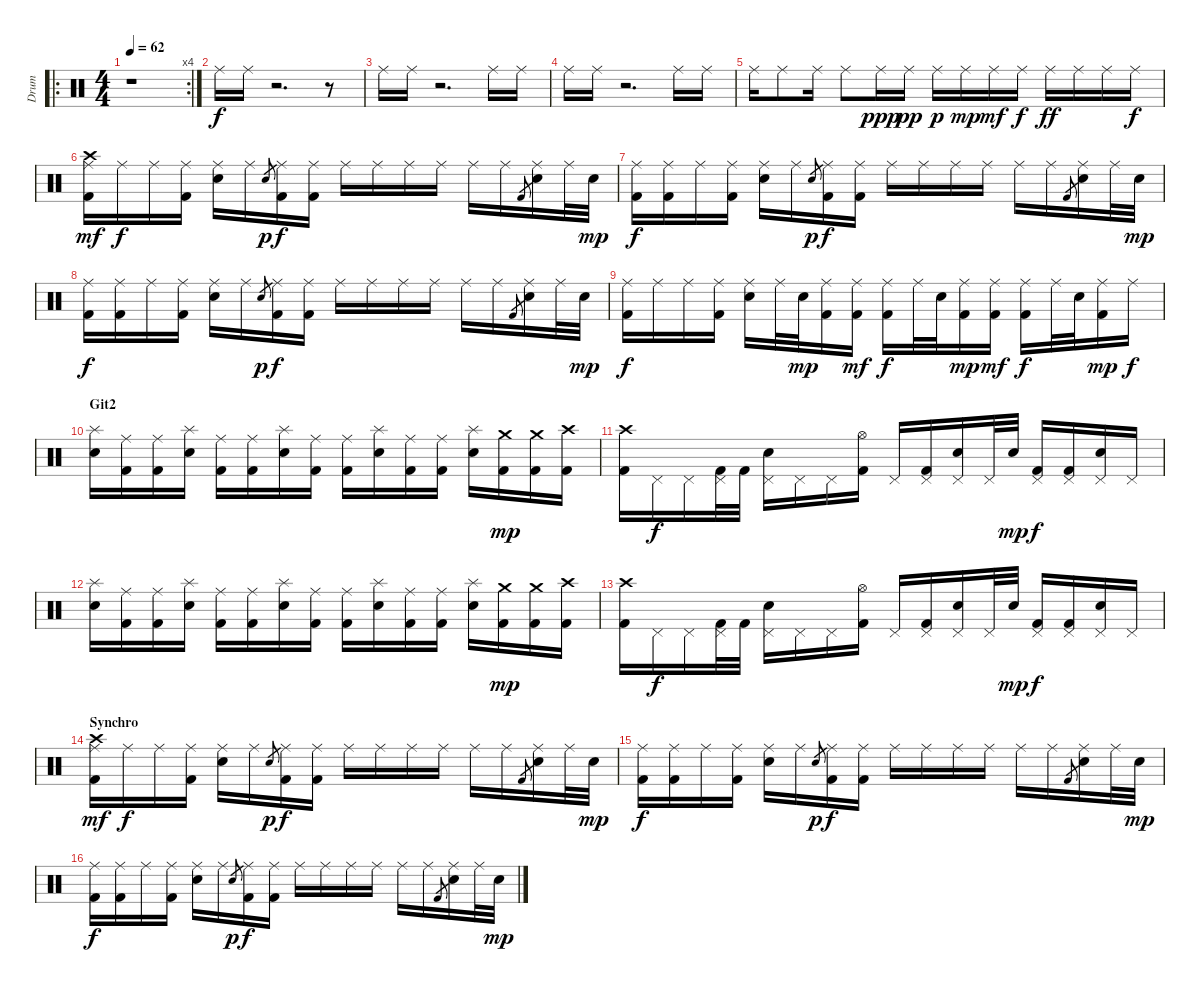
\track ("Drum" "Drum") {instrument percussion}
\staff {score}
\articulation defaults
\ro
\rc 4
\ts (4 4)
\tempo 62
\clef neutral
\ks c
r.1{dy f} |
"Ride (middle)".16 "Ride (middle)".16 r.2{d} r.8 |
"Ride (middle)".16 "Ride (middle)".16 r.2{d} "Ride (middle)".16 "Ride (middle)".16 |
"Ride (middle)".16 "Ride (middle)".16 r.2{d} "Ride (middle)".16 "Ride (middle)".16 |
"Ride (middle)".16 "Ride (middle)".8 "Ride (middle)".16 "Ride (middle)".8 "Ride (middle)".16{dy ppp} "Ride (middle)".16{dy pp} "Ride (middle)".16{dy p} "Ride (middle)".16{dy mp} "Ride (middle)".16{dy mf} "Ride (middle)".16{dy f} "Ride (middle)".16{dy ff} "Ride (middle)".16 "Ride (middle)".16 "Ride (middle)".16{dy f} |
("Crash high (hit)" "Ride (middle)" "Kick (hit) 2").16{dy mf} "Ride (middle)".16{dy f} "Ride (middle)".16 ("Ride (middle)" "Kick (hit) 2").16 ("Ride (middle)" "Electric Snare (hit)").16 "Ride (middle)".16 "Snare (hit) 2".8{gr dy p} ("Ride (middle)" "Kick (hit) 2").16{dy f} ("Ride (middle)" "Kick (hit) 2").16 "Ride (middle)".16 "Ride (middle)".16 "Ride (middle)".16 "Ride (middle)".16 "Ride (middle)".16 "Ride (middle)".16 "Kick (hit) 2".8{gr} ("Ride (middle)" "Electric Snare (hit)").16 "Ride (middle)".32 "Snare (hit) 2".32{dy mp} |
("Ride (middle)" "Kick (hit) 2").16{dy f} ("Ride (middle)" "Kick (hit) 2").16 "Ride (middle)".16 ("Ride (middle)" "Kick (hit) 2").16 ("Ride (middle)" "Electric Snare (hit)").16 "Ride (middle)".16 "Snare (hit) 2".8{gr dy p} ("Ride (middle)" "Kick (hit) 2").16{dy f} ("Ride (middle)" "Kick (hit) 2").16 "Ride (middle)".16 "Ride (middle)".16 "Ride (middle)".16 "Ride (middle)".16 "Ride (middle)".16 "Ride (middle)".16 "Kick (hit) 2".8{gr} ("Ride (middle)" "Electric Snare (hit)").16 "Ride (middle)".32 "Snare (hit) 2".32{dy mp} |
("Ride (middle)" "Kick (hit) 2").16{dy f} ("Ride (middle)" "Kick (hit) 2").16 "Ride (middle)".16 ("Ride (middle)" "Kick (hit) 2").16 ("Ride (middle)" "Electric Snare (hit)").16 "Ride (middle)".16 "Snare (hit) 2".8{gr dy p} ("Ride (middle)" "Kick (hit) 2").16{dy f} ("Ride (middle)" "Kick (hit) 2").16 "Ride (middle)".16 "Ride (middle)".16 "Ride (middle)".16 "Ride (middle)".16 "Ride (middle)".16 "Ride (middle)".16 "Kick (hit) 2".8{gr} ("Ride (middle)" "Electric Snare (hit)").16 "Ride (middle)".32 "Snare (hit) 2".32{dy mp} |
("Ride (middle)" "Kick (hit) 2").16{dy f} "Ride (middle)".16 "Ride (middle)".16 ("Ride (middle)" "Kick (hit) 2").16 ("Ride (middle)" "Electric Snare (hit)").16 "Ride (middle)".32 "Snare (hit) 2".32{dy mp} ("Ride (middle)" "Kick (hit) 2").16 ("Ride (middle)" "Kick (hit) 2").16{dy mf} ("Ride (middle)" "Kick (hit) 2").16{dy f} "Ride (middle)".32 "Electric Snare (hit)".32 ("Ride (middle)" "Kick (hit) 2").16{dy mp} ("Ride (middle)" "Kick (hit) 2").16{dy mf} ("Ride (middle)" "Kick (hit) 2").16{dy f} "Ride (middle)".32 "Electric Snare (hit)".32 ("Ride (middle)" "Kick (hit) 2").16{dy mp} "Ride (middle)".16{dy f} |
\section ("" "Git2")
("Splash (hit)" "Electric Snare (hit)").16 ("Ride (middle)" "Kick (hit) 2").16 ("Ride (middle)" "Kick (hit) 2").16 ("Splash (hit)" "Electric Snare (hit)").16 ("Ride (middle)" "Kick (hit) 2").16 ("Ride (middle)" "Kick (hit) 2").16 ("Splash (hit)" "Electric Snare (hit)").16 ("Ride (middle)" "Kick (hit) 2").16 ("Ride (middle)" "Kick (hit) 2").16 ("Splash (hit)" "Electric Snare (hit)").16 ("Ride (middle)" "Kick (hit) 2").16 ("Ride (middle)" "Kick (hit) 2").16 ("Splash (hit)" "Electric Snare (hit)").16 ("Crash medium (hit)" "Kick (hit) 2").16{dy mp} ("Crash medium (hit)" "Kick (hit) 2").16 ("Crash high (hit)" "Kick (hit) 2").16 |
("Crash high (hit)" "Kick (hit) 2").16 "Pedal Hi-Hat (hit)".16{dy f} "Pedal Hi-Hat (hit)".16 ("Pedal Hi-Hat (hit)" "Kick (hit) 2").32 "Kick (hit) 2".32 ("Pedal Hi-Hat (hit)" "Electric Snare (hit)").16 "Pedal Hi-Hat (hit)".16 "Pedal Hi-Hat (hit)".16 ("Hi-Hat (open)" "Kick (hit) 2").16 "Pedal Hi-Hat (hit)".16 ("Pedal Hi-Hat (hit)" "Kick (hit) 2").16 ("Pedal Hi-Hat (hit)" "Electric Snare (hit)").16 "Pedal Hi-Hat (hit)".32 "Electric Snare (hit)".32{dy mp} ("Pedal Hi-Hat (hit)" "Kick (hit) 2").16{dy f} ("Pedal Hi-Hat (hit)" "Kick (hit) 2").16 ("Pedal Hi-Hat (hit)" "Electric Snare (hit)").16 "Pedal Hi-Hat (hit)".16 |
("Splash (hit)" "Electric Snare (hit)").16 ("Ride (middle)" "Kick (hit) 2").16 ("Ride (middle)" "Kick (hit) 2").16 ("Splash (hit)" "Electric Snare (hit)").16 ("Ride (middle)" "Kick (hit) 2").16 ("Ride (middle)" "Kick (hit) 2").16 ("Splash (hit)" "Electric Snare (hit)").16 ("Ride (middle)" "Kick (hit) 2").16 ("Ride (middle)" "Kick (hit) 2").16 ("Splash (hit)" "Electric Snare (hit)").16 ("Ride (middle)" "Kick (hit) 2").16 ("Ride (middle)" "Kick (hit) 2").16 ("Splash (hit)" "Electric Snare (hit)").16 ("Crash medium (hit)" "Kick (hit) 2").16{dy mp} ("Crash medium (hit)" "Kick (hit) 2").16 ("Crash high (hit)" "Kick (hit) 2").16 |
("Crash high (hit)" "Kick (hit) 2").16 "Pedal Hi-Hat (hit)".16{dy f} "Pedal Hi-Hat (hit)".16 ("Pedal Hi-Hat (hit)" "Kick (hit) 2").32 "Kick (hit) 2".32 ("Pedal Hi-Hat (hit)" "Electric Snare (hit)").16 "Pedal Hi-Hat (hit)".16 "Pedal Hi-Hat (hit)".16 ("Hi-Hat (open)" "Kick (hit) 2").16 "Pedal Hi-Hat (hit)".16 ("Pedal Hi-Hat (hit)" "Kick (hit) 2").16 ("Pedal Hi-Hat (hit)" "Electric Snare (hit)").16 "Pedal Hi-Hat (hit)".32 "Electric Snare (hit)".32{dy mp} ("Pedal Hi-Hat (hit)" "Kick (hit) 2").16{dy f} ("Pedal Hi-Hat (hit)" "Kick (hit) 2").16 ("Pedal Hi-Hat (hit)" "Electric Snare (hit)").16 "Pedal Hi-Hat (hit)".16 |
\section ("" "Synchro")
("Crash high (hit)" "Ride (middle)" "Kick (hit) 2").16{dy mf} "Ride (middle)".16{dy f} "Ride (middle)".16 ("Ride (middle)" "Kick (hit) 2").16 ("Ride (middle)" "Electric Snare (hit)").16 "Ride (middle)".16 "Snare (hit) 2".8{gr dy p} ("Ride (middle)" "Kick (hit) 2").16{dy f} ("Ride (middle)" "Kick (hit) 2").16 "Ride (middle)".16 "Ride (middle)".16 "Ride (middle)".16 "Ride (middle)".16 "Ride (middle)".16 "Ride (middle)".16 "Kick (hit) 2".8{gr} ("Ride (middle)" "Electric Snare (hit)").16 "Ride (middle)".32 "Snare (hit) 2".32{dy mp} |
("Ride (middle)" "Kick (hit) 2").16{dy f} ("Ride (middle)" "Kick (hit) 2").16 "Ride (middle)".16 ("Ride (middle)" "Kick (hit) 2").16 ("Ride (middle)" "Electric Snare (hit)").16 "Ride (middle)".16 "Snare (hit) 2".8{gr dy p} ("Ride (middle)" "Kick (hit) 2").16{dy f} ("Ride (middle)" "Kick (hit) 2").16 "Ride (middle)".16 "Ride (middle)".16 "Ride (middle)".16 "Ride (middle)".16 "Ride (middle)".16 "Ride (middle)".16 "Kick (hit) 2".8{gr} ("Ride (middle)" "Electric Snare (hit)").16 "Ride (middle)".32 "Snare (hit) 2".32{dy mp} |
("Ride (middle)" "Kick (hit) 2").16{dy f} ("Ride (middle)" "Kick (hit) 2").16 "Ride (middle)".16 ("Ride (middle)" "Kick (hit) 2").16 ("Ride (middle)" "Electric Snare (hit)").16 "Ride (middle)".16 "Snare (hit) 2".8{gr dy p} ("Ride (middle)" "Kick (hit) 2").16{dy f} ("Ride (middle)" "Kick (hit) 2").16 "Ride (middle)".16 "Ride (middle)".16 "Ride (middle)".16 "Ride (middle)".16 "Ride (middle)".16 "Ride (middle)".16 "Kick (hit) 2".8{gr} ("Ride (middle)" "Electric Snare (hit)").16 "Ride (middle)".32 "Snare (hit) 2".32{dy mp}
